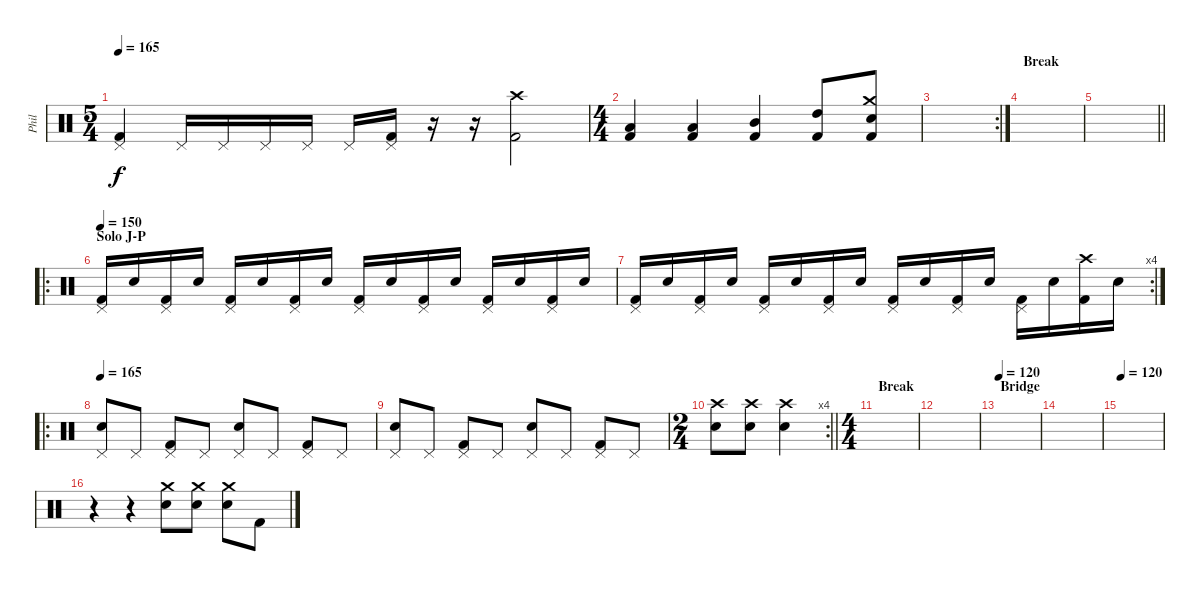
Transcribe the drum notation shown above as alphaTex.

\track ("Phil" "Phil") {instrument percussion}
\staff {score}
\articulation defaults
\ts (5 4)
\tempo 165
\clef neutral
\ks c
("Pedal Hi-Hat (hit)" "Kick (hit) 2").4{dy f} "Pedal Hi-Hat (hit)".16 "Pedal Hi-Hat (hit)".16 "Pedal Hi-Hat (hit)".16 "Pedal Hi-Hat (hit)".16 "Pedal Hi-Hat (hit)".16 ("Pedal Hi-Hat (hit)" "Kick (hit) 2").16 r.16 r.16 ("Crash high (hit)" "Kick (hit) 2").2 |
\ts (4 4)
("Low Tom (hit)" "Kick (hit) 2").4 ("Low Tom (hit)" "Kick (hit) 2").4 ("Mid Tom (hit)" "Kick (hit) 2").4 ("High Tom (hit)" "Kick (hit) 2").8 ("Crash medium (hit)" "Electric Snare (hit)" "Kick (hit) 2").8 |
\rc 2
|
\section ("" "Break")
|
\barLineRight lightlight
|
\ro
\section ("" "Solo J-P")
\tempo 150
("Pedal Hi-Hat (hit)" "Kick (hit) 2").16 "Electric Snare (hit)".16 ("Pedal Hi-Hat (hit)" "Kick (hit) 2").16 "Electric Snare (hit)".16 ("Pedal Hi-Hat (hit)" "Kick (hit) 2").16 "Electric Snare (hit)".16 ("Pedal Hi-Hat (hit)" "Kick (hit) 2").16 "Electric Snare (hit)".16 ("Pedal Hi-Hat (hit)" "Kick (hit) 2").16 "Electric Snare (hit)".16 ("Pedal Hi-Hat (hit)" "Kick (hit) 2").16 "Electric Snare (hit)".16 ("Pedal Hi-Hat (hit)" "Kick (hit) 2").16 "Electric Snare (hit)".16 ("Pedal Hi-Hat (hit)" "Kick (hit) 2").16 "Electric Snare (hit)".16 |
\rc 4
("Pedal Hi-Hat (hit)" "Kick (hit) 2").16 "Electric Snare (hit)".16 ("Pedal Hi-Hat (hit)" "Kick (hit) 2").16 "Electric Snare (hit)".16 ("Pedal Hi-Hat (hit)" "Kick (hit) 2").16 "Electric Snare (hit)".16 ("Pedal Hi-Hat (hit)" "Kick (hit) 2").16 "Electric Snare (hit)".16 ("Pedal Hi-Hat (hit)" "Kick (hit) 2").16 "Electric Snare (hit)".16 ("Pedal Hi-Hat (hit)" "Kick (hit) 2").16 "Electric Snare (hit)".16 ("Pedal Hi-Hat (hit)" "Kick (hit) 2").16 "Electric Snare (hit)".16 ("Crash high (hit)" "Kick (hit) 2").16 "Electric Snare (hit)".16 |
\ro
\tempo 165
("Pedal Hi-Hat (hit)" "Electric Snare (hit)").8 "Pedal Hi-Hat (hit)".8 ("Pedal Hi-Hat (hit)" "Kick (hit) 2").8 "Pedal Hi-Hat (hit)".8 ("Pedal Hi-Hat (hit)" "Electric Snare (hit)").8 "Pedal Hi-Hat (hit)".8 ("Pedal Hi-Hat (hit)" "Kick (hit) 2").8 "Pedal Hi-Hat (hit)".8 |
("Pedal Hi-Hat (hit)" "Electric Snare (hit)").8 "Pedal Hi-Hat (hit)".8 ("Pedal Hi-Hat (hit)" "Kick (hit) 2").8 "Pedal Hi-Hat (hit)".8 ("Pedal Hi-Hat (hit)" "Electric Snare (hit)").8 "Pedal Hi-Hat (hit)".8 ("Pedal Hi-Hat (hit)" "Kick (hit) 2").8 "Pedal Hi-Hat (hit)".8 |
\rc 4
\ts (2 4)
\barLineRight lightlight
("Crash high (hit)" "Electric Snare (hit)").8 ("Crash high (hit)" "Electric Snare (hit)").8 ("Crash high (hit)" "Electric Snare (hit)").4 |
\ts (4 4)
\section ("" "Break")
|
|
\section ("" "Bridge")
\tempo 120
|
|
\tempo 120
|
r.4 r.4 ("Crash medium (hit)" "Electric Snare (hit)").8 ("Crash medium (hit)" "Electric Snare (hit)").8 ("Crash medium (hit)" "Electric Snare (hit)").8 "Kick (hit) 2".8
